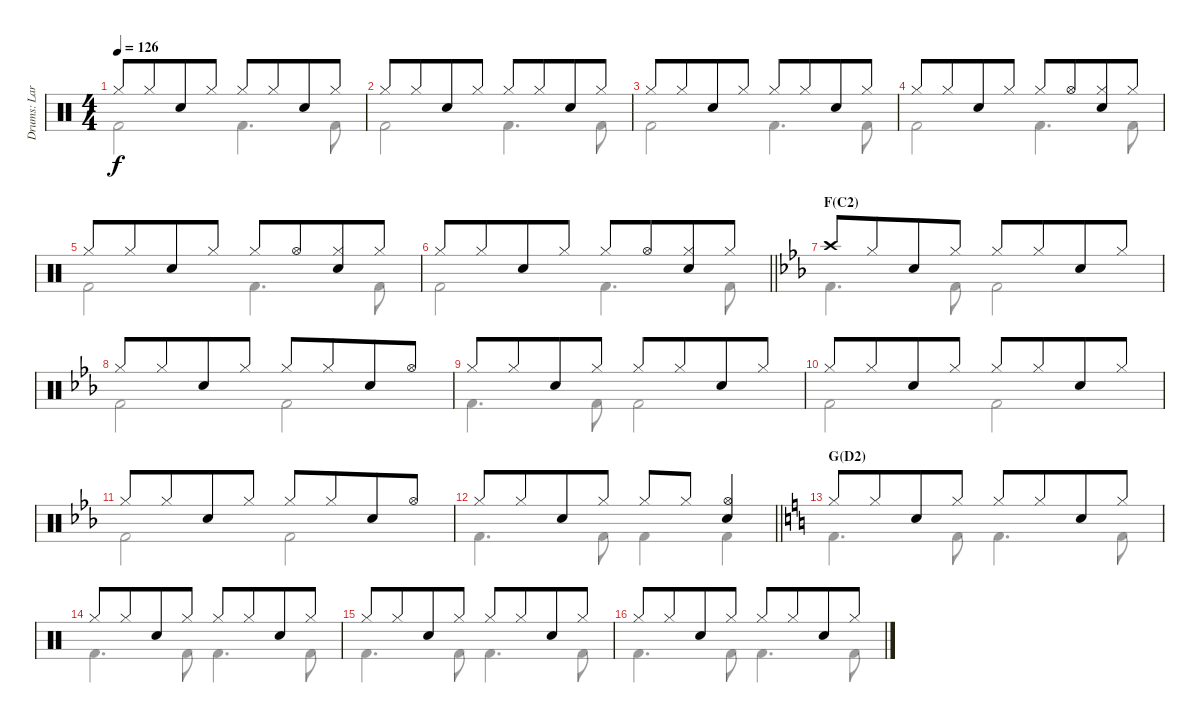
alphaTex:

\track ("Drums: Larrie" "Drums: Lar") {instrument percussion}
\staff {score}
\articulation defaults
\voice
\ts (4 4)
\tempo 126
\clef neutral
\ks c "Hi-Hat (closed)".8{dy f} "Hi-Hat (closed)".8{beam merge} "Snare (hit) 2".8 "Hi-Hat (closed)".8 "Hi-Hat (closed)".8 "Hi-Hat (closed)".8{beam merge} "Snare (hit) 2".8 "Hi-Hat (closed)".8
|
"Hi-Hat (closed)".8 "Hi-Hat (closed)".8{beam merge} "Snare (hit) 2".8 "Hi-Hat (closed)".8 "Hi-Hat (closed)".8 "Hi-Hat (closed)".8{beam merge} "Snare (hit) 2".8 "Hi-Hat (closed)".8 |
"Hi-Hat (closed)".8 "Hi-Hat (closed)".8{beam merge} "Snare (hit) 2".8 "Hi-Hat (closed)".8 "Hi-Hat (closed)".8 "Hi-Hat (closed)".8{beam merge} "Snare (hit) 2".8 "Hi-Hat (closed)".8 |
"Hi-Hat (closed)".8 "Hi-Hat (closed)".8{beam merge} "Snare (hit) 2".8 "Hi-Hat (closed)".8 "Hi-Hat (closed)".8 "Hi-Hat (open)".8{beam merge} ("Hi-Hat (closed)" "Snare (hit) 2").8 "Hi-Hat (closed)".8 |
"Hi-Hat (closed)".8 "Hi-Hat (closed)".8{beam merge} "Snare (hit) 2".8 "Hi-Hat (closed)".8 "Hi-Hat (closed)".8 "Hi-Hat (open)".8{beam merge} ("Hi-Hat (closed)" "Snare (hit) 2").8 "Hi-Hat (closed)".8 |
\barLineRight lightlight "Hi-Hat (closed)".8 "Hi-Hat (closed)".8{beam merge} "Snare (hit) 2".8 "Hi-Hat (closed)".8 "Hi-Hat (closed)".8 "Hi-Hat (open)".8{beam merge}
("Hi-Hat (closed)" "Snare (hit) 2").8 "Hi-Hat (closed)".8 |
\section ("" "F(C2)")
\ks eb "Crash high (hit)".8 "Hi-Hat (closed)".8{beam merge} "Snare (hit) 2".8 "Hi-Hat (closed)".8 "Hi-Hat (closed)".8 "Hi-Hat (closed)".8{beam merge} "Snare (hit) 2".8 "Hi-Hat (closed)".8
|
"Hi-Hat (closed)".8 "Hi-Hat (closed)".8{beam merge} "Snare (hit) 2".8 "Hi-Hat (closed)".8 "Hi-Hat (closed)".8 "Hi-Hat (closed)".8{beam merge} "Snare (hit) 2".8 "Hi-Hat (open)".8 |
"Hi-Hat (closed)".8 "Hi-Hat (closed)".8{beam merge} "Snare (hit) 2".8 "Hi-Hat (closed)".8 "Hi-Hat (closed)".8 "Hi-Hat (closed)".8{beam merge} "Snare (hit) 2".8 "Hi-Hat (closed)".8 |
"Hi-Hat (closed)".8 "Hi-Hat (closed)".8{beam merge} "Snare (hit) 2".8 "Hi-Hat (closed)".8 "Hi-Hat (closed)".8 "Hi-Hat (closed)".8{beam merge} "Snare (hit) 2".8 "Hi-Hat (closed)".8 |
"Hi-Hat (closed)".8 "Hi-Hat (closed)".8{beam merge} "Snare (hit) 2".8 "Hi-Hat (closed)".8 "Hi-Hat (closed)".8 "Hi-Hat (closed)".8{beam merge} "Snare (hit) 2".8 "Hi-Hat (open)".8 |
\barLineRight lightlight "Hi-Hat (closed)".8 "Hi-Hat (closed)".8{beam merge} "Snare (hit) 2".8 "Hi-Hat (closed)".8 "Hi-Hat (closed)".8 "Hi-Hat (closed)".8{beam merge}
("Hi-Hat (open)" "Snare (hit) 2").4 |
\section ("" "G(D2)")
\ks c "Hi-Hat (closed)".8 "Hi-Hat (closed)".8{beam merge} "Snare (hit) 2".8 "Hi-Hat (closed)".8 "Hi-Hat (closed)".8 "Hi-Hat (closed)".8{beam merge} "Snare (hit) 2".8 "Hi-Hat (closed)".8
|
"Hi-Hat (closed)".8 "Hi-Hat (closed)".8{beam merge} "Snare (hit) 2".8 "Hi-Hat (closed)".8 "Hi-Hat (closed)".8 "Hi-Hat (closed)".8{beam merge} "Snare (hit) 2".8 "Hi-Hat (closed)".8 |
"Hi-Hat (closed)".8 "Hi-Hat (closed)".8{beam merge} "Snare (hit) 2".8 "Hi-Hat (closed)".8 "Hi-Hat (closed)".8 "Hi-Hat (closed)".8{beam merge} "Snare (hit) 2".8 "Hi-Hat (closed)".8 |
"Hi-Hat (closed)".8 "Hi-Hat (closed)".8{beam merge} "Snare (hit) 2".8 "Hi-Hat (closed)".8 "Hi-Hat (closed)".8 "Hi-Hat (closed)".8{beam merge} "Snare (hit) 2".8 "Hi-Hat (closed)".8
\voice
\clef neutral
\ottava regular
\simile none
\ks c "Kick (hit) 2".2{dy f} "Kick (hit) 2".4{d} "Kick (hit) 2".8
|
"Kick (hit) 2".2 "Kick (hit) 2".4{d} "Kick (hit) 2".8 |
"Kick (hit) 2".2 "Kick (hit) 2".4{d} "Kick (hit) 2".8 |
"Kick (hit) 2".2 "Kick (hit) 2".4{d} "Kick (hit) 2".8 |
"Kick (hit) 2".2 "Kick (hit) 2".4{d} "Kick (hit) 2".8 |
\barLineRight lightlight "Kick (hit) 2".2 "Kick (hit) 2".4{d} "Kick (hit) 2".8
|
\ks eb "Kick (hit) 2".4{d} "Kick (hit) 2".8 "Kick (hit) 2".2
|
"Kick (hit) 2".2 "Kick (hit) 2".2 |
"Kick (hit) 2".4{d} "Kick (hit) 2".8 "Kick (hit) 2".2 |
"Kick (hit) 2".2 "Kick (hit) 2".2 |
"Kick (hit) 2".2 "Kick (hit) 2".2 |
\barLineRight lightlight "Kick (hit) 2".4{d} "Kick (hit) 2".8 "Kick (hit) 2".4 "Kick (hit) 2".4
|
\ks c "Kick (hit) 2".4{d} "Kick (hit) 2".8 "Kick (hit) 2".4{d} "Kick (hit) 2".8
|
"Kick (hit) 2".4{d} "Kick (hit) 2".8 "Kick (hit) 2".4{d} "Kick (hit) 2".8 |
"Kick (hit) 2".4{d} "Kick (hit) 2".8 "Kick (hit) 2".4{d} "Kick (hit) 2".8 |
"Kick (hit) 2".4{d} "Kick (hit) 2".8 "Kick (hit) 2".4{d} "Kick (hit) 2".8
